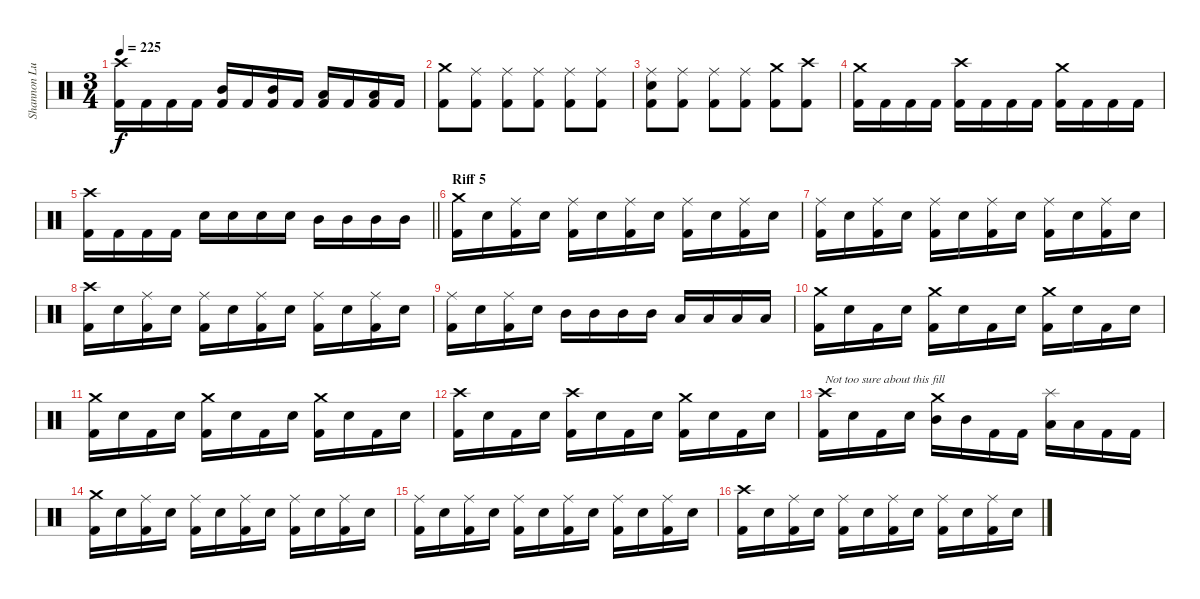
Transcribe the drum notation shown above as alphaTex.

\track ("Shannon Lucas" "Shannon Lu") {instrument percussion}
\staff {score}
\articulation defaults
\ts (3 4)
\tempo 225
\clef neutral
\ks c
("Crash high (hit)" "Kick (hit) 2").16{dy f} "Kick (hit) 2".16 "Kick (hit) 2".16 "Kick (hit) 2".16 ("Mid Tom (hit)" "Kick (hit) 2").16 "Kick (hit) 2".16 ("Mid Tom (hit)" "Kick (hit) 2").16 "Kick (hit) 2".16 ("Low Tom (hit)" "Kick (hit) 2").16 "Kick (hit) 2".16 ("Low Tom (hit)" "Kick (hit) 2").16 "Kick (hit) 2".16 |
("Crash medium (hit)" "Kick (hit) 2").8 ("Ride (middle)" "Kick (hit) 2").8 ("Ride (middle)" "Kick (hit) 2").8 ("Ride (middle)" "Kick (hit) 2").8 ("Ride (middle)" "Kick (hit) 2").8 ("Ride (middle)" "Kick (hit) 2").8 |
("Ride (middle)" "Electric Snare (hit)" "Kick (hit) 2").8 ("Ride (middle)" "Kick (hit) 2").8 ("Ride (middle)" "Kick (hit) 2").8 ("Ride (middle)" "Kick (hit) 2").8 ("Crash medium (hit)" "Kick (hit) 2").8 ("Crash high (hit)" "Kick (hit) 2").8 |
("Crash medium (hit)" "Kick (hit) 2").16 "Kick (hit) 2".16 "Kick (hit) 2".16 "Kick (hit) 2".16 ("Crash high (hit)" "Kick (hit) 2").16 "Kick (hit) 2".16 "Kick (hit) 2".16 "Kick (hit) 2".16 ("Crash medium (hit)" "Kick (hit) 2").16 "Kick (hit) 2".16 "Kick (hit) 2".16 "Kick (hit) 2".16 |
\barLineRight lightlight
("Crash high (hit)" "Kick (hit) 2").16 "Kick (hit) 2".16 "Kick (hit) 2".16 "Kick (hit) 2".16 "Electric Snare (hit)".16 "Electric Snare (hit)".16 "Electric Snare (hit)".16 "Electric Snare (hit)".16 "Mid Tom (hit)".16 "Mid Tom (hit)".16 "Mid Tom (hit)".16 "Mid Tom (hit)".16 |
\section ("" "Riff 5")
("Crash medium (hit)" "Kick (hit) 2").16 "Electric Snare (hit)".16 ("Ride (middle)" "Kick (hit) 2").16 "Electric Snare (hit)".16 ("Ride (middle)" "Kick (hit) 2").16 "Electric Snare (hit)".16 ("Ride (middle)" "Kick (hit) 2").16 "Electric Snare (hit)".16 ("Ride (middle)" "Kick (hit) 2").16 "Electric Snare (hit)".16 ("Ride (middle)" "Kick (hit) 2").16 "Electric Snare (hit)".16 |
("Ride (middle)" "Kick (hit) 2").16 "Electric Snare (hit)".16 ("Ride (middle)" "Kick (hit) 2").16 "Electric Snare (hit)".16 ("Ride (middle)" "Kick (hit) 2").16 "Electric Snare (hit)".16 ("Ride (middle)" "Kick (hit) 2").16 "Electric Snare (hit)".16 ("Ride (middle)" "Kick (hit) 2").16 "Electric Snare (hit)".16 ("Ride (middle)" "Kick (hit) 2").16 "Electric Snare (hit)".16 |
("Crash high (hit)" "Kick (hit) 2").16 "Electric Snare (hit)".16 ("Ride (middle)" "Kick (hit) 2").16 "Electric Snare (hit)".16 ("Ride (middle)" "Kick (hit) 2").16 "Electric Snare (hit)".16 ("Ride (middle)" "Kick (hit) 2").16 "Electric Snare (hit)".16 ("Ride (middle)" "Kick (hit) 2").16 "Electric Snare (hit)".16 ("Ride (middle)" "Kick (hit) 2").16 "Electric Snare (hit)".16 |
("Ride (middle)" "Kick (hit) 2").16 "Electric Snare (hit)".16 ("Ride (middle)" "Kick (hit) 2").16 "Electric Snare (hit)".16 "Mid Tom (hit)".16 "Mid Tom (hit)".16 "Mid Tom (hit)".16 "Mid Tom (hit)".16 "Low Tom (hit)".16 "Low Tom (hit)".16 "Low Tom (hit)".16 "Low Tom (hit)".16 |
("Crash medium (hit)" "Kick (hit) 2").16 "Electric Snare (hit)".16 "Kick (hit) 2".16 "Electric Snare (hit)".16 ("Crash medium (hit)" "Kick (hit) 2").16 "Electric Snare (hit)".16 "Kick (hit) 2".16 "Electric Snare (hit)".16 ("Crash medium (hit)" "Kick (hit) 2").16 "Electric Snare (hit)".16 "Kick (hit) 2".16 "Electric Snare (hit)".16 |
("Crash medium (hit)" "Kick (hit) 2").16 "Electric Snare (hit)".16 "Kick (hit) 2".16 "Electric Snare (hit)".16 ("Crash medium (hit)" "Kick (hit) 2").16 "Electric Snare (hit)".16 "Kick (hit) 2".16 "Electric Snare (hit)".16 ("Crash medium (hit)" "Kick (hit) 2").16 "Electric Snare (hit)".16 "Kick (hit) 2".16 "Electric Snare (hit)".16 |
("Crash high (hit)" "Kick (hit) 2").16 "Electric Snare (hit)".16 "Kick (hit) 2".16 "Electric Snare (hit)".16 ("Crash high (hit)" "Kick (hit) 2").16 "Electric Snare (hit)".16 "Kick (hit) 2".16 "Electric Snare (hit)".16 ("Crash medium (hit)" "Kick (hit) 2").16 "Electric Snare (hit)".16 "Kick (hit) 2".16 "Electric Snare (hit)".16 |
("Crash high (hit)" "Kick (hit) 2").16{txt "Not too sure about this fill"} "Electric Snare (hit)".16 "Kick (hit) 2".16 "Electric Snare (hit)".16 ("Crash medium (hit)" "Mid Tom (hit)").16 "Mid Tom (hit)".16 "Kick (hit) 2".16 "Kick (hit) 2".16 ("Splash (hit)" "Low Tom (hit)").16 "Low Tom (hit)".16 "Kick (hit) 2".16 "Kick (hit) 2".16 |
("Crash medium (hit)" "Kick (hit) 2").16 "Electric Snare (hit)".16 ("Ride (middle)" "Kick (hit) 2").16 "Electric Snare (hit)".16 ("Ride (middle)" "Kick (hit) 2").16 "Electric Snare (hit)".16 ("Ride (middle)" "Kick (hit) 2").16 "Electric Snare (hit)".16 ("Ride (middle)" "Kick (hit) 2").16 "Electric Snare (hit)".16 ("Ride (middle)" "Kick (hit) 2").16 "Electric Snare (hit)".16 |
("Ride (middle)" "Kick (hit) 2").16 "Electric Snare (hit)".16 ("Ride (middle)" "Kick (hit) 2").16 "Electric Snare (hit)".16 ("Ride (middle)" "Kick (hit) 2").16 "Electric Snare (hit)".16 ("Ride (middle)" "Kick (hit) 2").16 "Electric Snare (hit)".16 ("Ride (middle)" "Kick (hit) 2").16 "Electric Snare (hit)".16 ("Ride (middle)" "Kick (hit) 2").16 "Electric Snare (hit)".16 |
("Crash high (hit)" "Kick (hit) 2").16 "Electric Snare (hit)".16 ("Ride (middle)" "Kick (hit) 2").16 "Electric Snare (hit)".16 ("Ride (middle)" "Kick (hit) 2").16 "Electric Snare (hit)".16 ("Ride (middle)" "Kick (hit) 2").16 "Electric Snare (hit)".16 ("Ride (middle)" "Kick (hit) 2").16 "Electric Snare (hit)".16 ("Ride (middle)" "Kick (hit) 2").16 "Electric Snare (hit)".16
